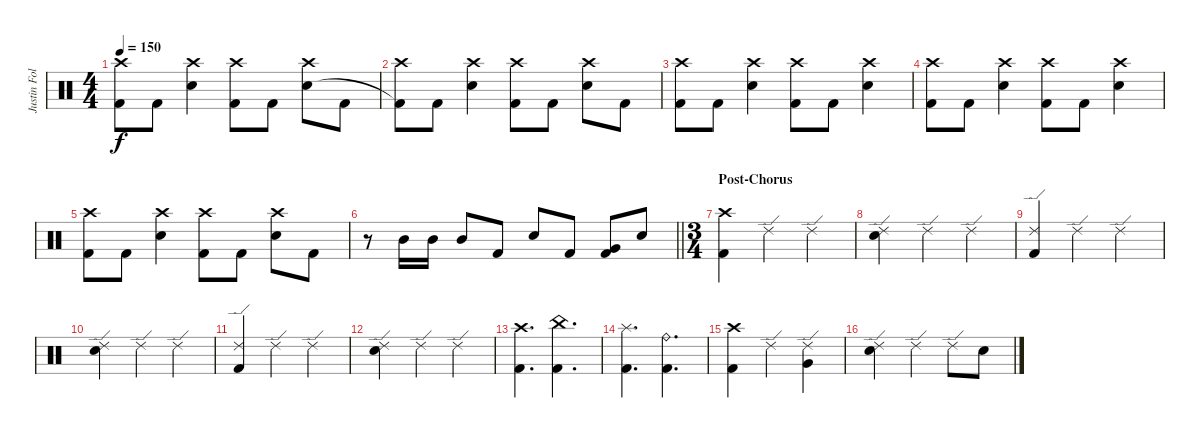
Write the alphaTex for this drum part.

\track ("Justin Foley" "Justin Fol") {instrument percussion}
\staff {score}
\articulation defaults
\ts (4 4)
\tempo 150
\clef neutral
\ks c
("Crash high (hit)" "Kick (hit) 2").8{dy f} "Kick (hit) 2".8 ("Crash high (hit)" "Snare (hit) 2").4 ("Crash high (hit)" "Kick (hit) 2").8 "Kick (hit) 2".8 ("Crash high (hit)" "Snare (hit) 2").8 "Kick (hit) 2".8 |
("Crash high (hit)" "Kick (hit) 2"{t}).8 "Kick (hit) 2".8 ("Crash high (hit)" "Snare (hit) 2").4 ("Crash high (hit)" "Kick (hit) 2").8 "Kick (hit) 2".8 ("Crash high (hit)" "Snare (hit) 2").8 "Kick (hit) 2".8 |
("Crash high (hit)" "Kick (hit) 2").8 "Kick (hit) 2".8 ("Crash high (hit)" "Snare (hit) 2").4 ("Crash high (hit)" "Kick (hit) 2").8 "Kick (hit) 2".8 ("Crash high (hit)" "Snare (hit) 2").4 |
("Crash high (hit)" "Kick (hit) 2").8 "Kick (hit) 2".8 ("Crash high (hit)" "Snare (hit) 2").4 ("Crash high (hit)" "Kick (hit) 2").8 "Kick (hit) 2".8 ("Crash high (hit)" "Snare (hit) 2").4 |
("Crash high (hit)" "Kick (hit) 2").8 "Kick (hit) 2".8 ("Crash high (hit)" "Snare (hit) 2").4 ("Crash high (hit)" "Kick (hit) 2").8 "Kick (hit) 2".8 ("Crash high (hit)" "Snare (hit) 2").8 "Kick (hit) 2".8 |
\barLineRight lightlight
r.8 "Mid Tom (hit)".16 "Mid Tom (hit)".16 "Mid Tom (hit)".8 "Kick (hit) 2".8 "Snare (hit) 2".8 "Kick (hit) 2".8 ("Very Low Tom (hit)" "Kick (hit) 2").8 "Snare (hit) 2".8 |
\ts (3 4)
\section ("" "Post-Chorus")
("Crash high (hit)" "Kick (hit) 2").4 "Ride (edge) 2".4 "Ride (edge) 2".4 |
("Ride (edge) 2" "Snare (hit) 2").4 "Ride (edge) 2".4 "Ride (edge) 2".4 |
("Ride (edge) 2" "Kick (hit) 2").4 "Ride (edge) 2".4 "Ride (edge) 2".4 |
("Ride (edge) 2" "Snare (hit) 2").4 "Ride (edge) 2".4 "Ride (edge) 2".4 |
("Ride (edge) 2" "Kick (hit) 2").4 "Ride (edge) 2".4 "Ride (edge) 2".4 |
("Ride (edge) 2" "Snare (hit) 2").4 "Ride (edge) 2".4 "Ride (edge) 2".4 |
("Crash high (hit)" "Kick (hit) 2").4{d} ("China (hit)" "Kick (hit) 2").4{d} |
("Splash (hit)" "Kick (hit) 2").4{d} ("Ride (bell)" "Kick (hit) 2").4{d} |
("Crash high (hit)" "Kick (hit) 2").4 "Ride (edge) 2".4 ("Ride (edge) 2" "Very Low Tom (hit)").4 |
("Ride (edge) 2" "Snare (hit) 2").4 "Ride (edge) 2".4 "Ride (edge) 2".8 "Snare (hit) 2".8
